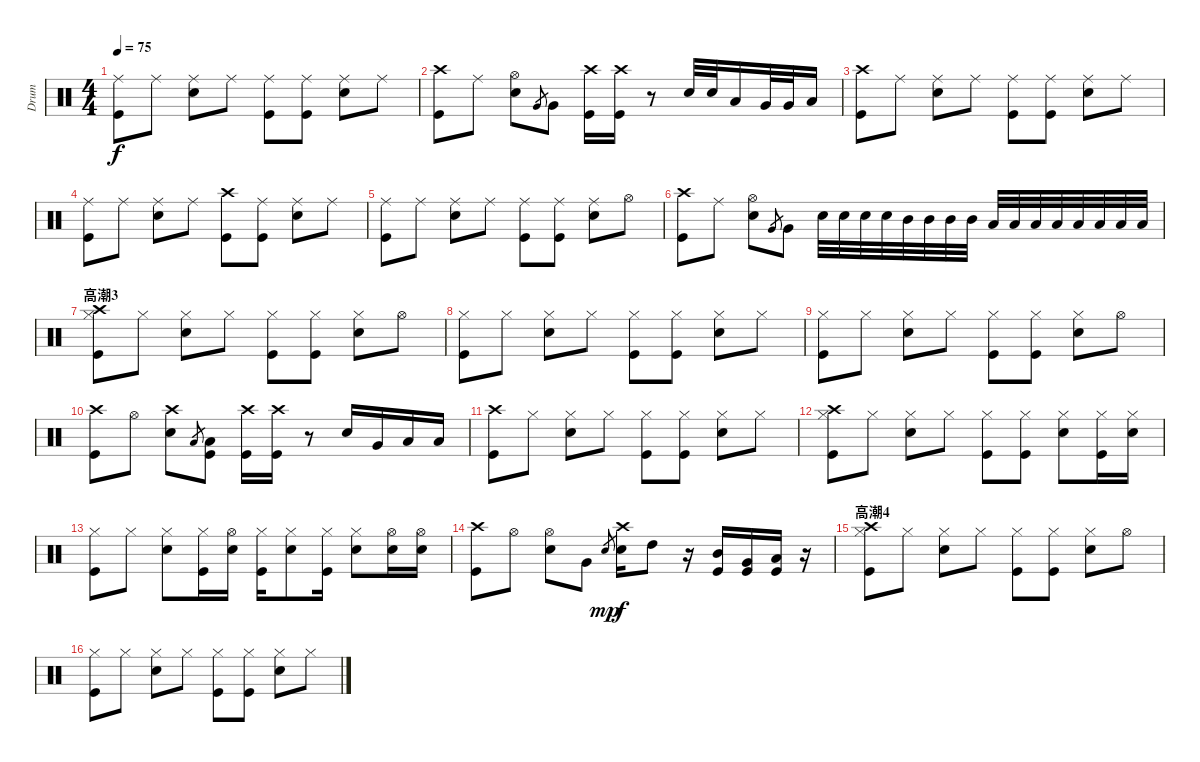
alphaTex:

\track ("Drum" "Drum") {instrument percussion}
\staff {score}
\articulation defaults
\ts (4 4)
\tempo 75
\clef neutral
\ks c
("Ride (middle)" "Kick (hit)").8{dy f} "Ride (middle)".8 ("Ride (middle)" "Electric Snare (hit)").8 "Ride (middle)".8 ("Ride (middle)" "Kick (hit)").8 ("Ride (middle)" "Kick (hit)").8 ("Ride (middle)" "Electric Snare (hit)").8 "Ride (middle)".8 |
("Crash high (hit)" "Kick (hit)").8 "Ride (middle)".8 ("Hi-Hat (open)" "Electric Snare (hit)").8 "Very Low Tom (hit)".8{gr} "Very Low Tom (hit)".8 ("Crash high (hit)" "Kick (hit)").16 ("Crash high (hit)" "Kick (hit)").16 r.8 "Electric Snare (hit)".32 "Electric Snare (hit)".32 "Low Floor Tom (hit)".16 "Very Low Tom (hit)".32 "Very Low Tom (hit)".32 "Low Floor Tom (hit)".16 |
("Crash high (hit)" "Kick (hit)").8 "Ride (middle)".8 ("Ride (middle)" "Electric Snare (hit)").8 "Ride (middle)".8 ("Ride (middle)" "Kick (hit)").8 ("Ride (middle)" "Kick (hit)").8 ("Ride (middle)" "Snare (hit) 2").8 "Ride (middle)".8 |
("Ride (middle)" "Kick (hit)").8 "Ride (middle)".8 ("Ride (middle)" "Electric Snare (hit)").8 "Ride (middle)".8 ("Crash high (hit)" "Kick (hit)").8 ("Ride (middle)" "Kick (hit)").8 ("Ride (middle)" "Snare (hit) 2").8 "Ride (middle)".8 |
("Ride (middle)" "Kick (hit)").8 "Ride (middle)".8 ("Ride (middle)" "Electric Snare (hit)").8 "Ride (middle)".8 ("Ride (middle)" "Kick (hit)").8 ("Ride (middle)" "Kick (hit)").8 ("Ride (middle)" "Snare (hit) 2").8 "Hi-Hat (open)".8 |
("Crash high (hit)" "Kick (hit)").8 "Ride (middle)".8 ("Hi-Hat (open)" "Electric Snare (hit)").8 "Very Low Tom (hit)".8{gr} "Very Low Tom (hit)".8 "Snare (hit) 2".32 "Snare (hit) 2".32 "Snare (hit) 2".32 "Snare (hit) 2".32 "Mid Tom (hit)".32 "Mid Tom (hit)".32 "Mid Tom (hit)".32 "Mid Tom (hit)".32 "Low Tom (hit)".32 "Low Tom (hit)".32 "Low Tom (hit)".32 "Low Tom (hit)".32 "Low Floor Tom (hit)".32 "Low Floor Tom (hit)".32 "Low Floor Tom (hit)".32 "Low Floor Tom (hit)".32 |
\section ("" "高潮3")
("Hi-Hat (closed)" "Crash high (hit)" "Kick (hit)").8 "Hi-Hat (closed)".8 ("Hi-Hat (closed)" "Electric Snare (hit)").8 "Hi-Hat (closed)".8 ("Hi-Hat (closed)" "Kick (hit)").8 ("Hi-Hat (closed)" "Kick (hit)").8 ("Hi-Hat (closed)" "Electric Snare (hit)").8 "Hi-Hat (open)".8 |
("Hi-Hat (closed)" "Kick (hit)").8 "Hi-Hat (closed)".8 ("Hi-Hat (closed)" "Electric Snare (hit)").8 "Hi-Hat (closed)".8 ("Hi-Hat (closed)" "Kick (hit)").8 ("Hi-Hat (closed)" "Kick (hit)").8 ("Hi-Hat (closed)" "Electric Snare (hit)").8 "Hi-Hat (closed)".8 |
("Hi-Hat (closed)" "Kick (hit)").8 "Hi-Hat (closed)".8 ("Hi-Hat (closed)" "Electric Snare (hit)").8 "Hi-Hat (closed)".8 ("Hi-Hat (closed)" "Kick (hit)").8 ("Hi-Hat (closed)" "Kick (hit)").8 ("Hi-Hat (closed)" "Electric Snare (hit)").8 "Hi-Hat (open)".8 |
("Crash high (hit)" "Kick (hit)").8 "Hi-Hat (open)".8 ("Crash high (hit)" "Electric Snare (hit)").8 "Low Floor Tom (hit)".8{gr} ("Low Floor Tom (hit)" "Kick (hit)").8 ("Crash high (hit)" "Kick (hit)").16 ("Crash high (hit)" "Kick (hit)").16 r.8 "Electric Snare (hit)".16 "Very Low Tom (hit)".16 "Low Floor Tom (hit)".16 "Low Floor Tom (hit)".16 |
("Crash high (hit)" "Kick (hit)").8 "Hi-Hat (closed)".8 ("Hi-Hat (closed)" "Electric Snare (hit)").8 "Hi-Hat (closed)".8 ("Hi-Hat (closed)" "Kick (hit)").8 ("Hi-Hat (closed)" "Kick (hit)").8 ("Hi-Hat (closed)" "Electric Snare (hit)").8 "Hi-Hat (closed)".8 |
("Hi-Hat (closed)" "Crash high (hit)" "Kick (hit)").8 "Hi-Hat (closed)".8 ("Hi-Hat (closed)" "Electric Snare (hit)").8 "Hi-Hat (closed)".8 ("Hi-Hat (closed)" "Kick (hit)").8 ("Hi-Hat (closed)" "Kick (hit)").8 ("Hi-Hat (closed)" "Electric Snare (hit)").8 ("Hi-Hat (closed)" "Kick (hit)").16 ("Hi-Hat (closed)" "Snare (hit) 2").16 |
("Hi-Hat (closed)" "Kick (hit)").8 "Hi-Hat (closed)".8 ("Hi-Hat (closed)" "Electric Snare (hit)").8 ("Hi-Hat (closed)" "Kick (hit)").16 ("Hi-Hat (open)" "Snare (hit) 2").16 ("Hi-Hat (closed)" "Kick (hit)").16 ("Hi-Hat (closed)" "Snare (hit) 2").8 ("Hi-Hat (closed)" "Kick (hit)").16 ("Hi-Hat (closed)" "Electric Snare (hit)").8 ("Hi-Hat (open)" "Snare (hit) 2").16 ("Hi-Hat (open)" "Snare (hit) 2").16 |
("Crash high (hit)" "Kick (hit)").8 "Hi-Hat (open)".8 ("Hi-Hat (open)" "Snare (hit) 2").8 "Very Low Tom (hit)".8 "Electric Snare (hit)".8{gr dy mp} ("Crash high (hit)" "Electric Snare (hit)").16{dy f} "High Tom (hit)".8 r.16 ("Mid Tom (hit)" "Kick (hit)").16 ("Very Low Tom (hit)" "Kick (hit)").16 ("Low Floor Tom (hit)" "Kick (hit)").16 r.16 |
\section ("" "高潮4")
("Hi-Hat (closed)" "Crash high (hit)" "Kick (hit)").8 "Hi-Hat (closed)".8 ("Hi-Hat (closed)" "Electric Snare (hit)").8 "Hi-Hat (closed)".8 ("Hi-Hat (closed)" "Kick (hit)").8 ("Hi-Hat (closed)" "Kick (hit)").8 ("Hi-Hat (closed)" "Electric Snare (hit)").8 "Hi-Hat (open)".8 |
("Hi-Hat (closed)" "Kick (hit)").8 "Hi-Hat (closed)".8 ("Hi-Hat (closed)" "Electric Snare (hit)").8 "Hi-Hat (closed)".8 ("Hi-Hat (closed)" "Kick (hit)").8 ("Hi-Hat (closed)" "Kick (hit)").8 ("Hi-Hat (closed)" "Electric Snare (hit)").8 "Hi-Hat (closed)".8
